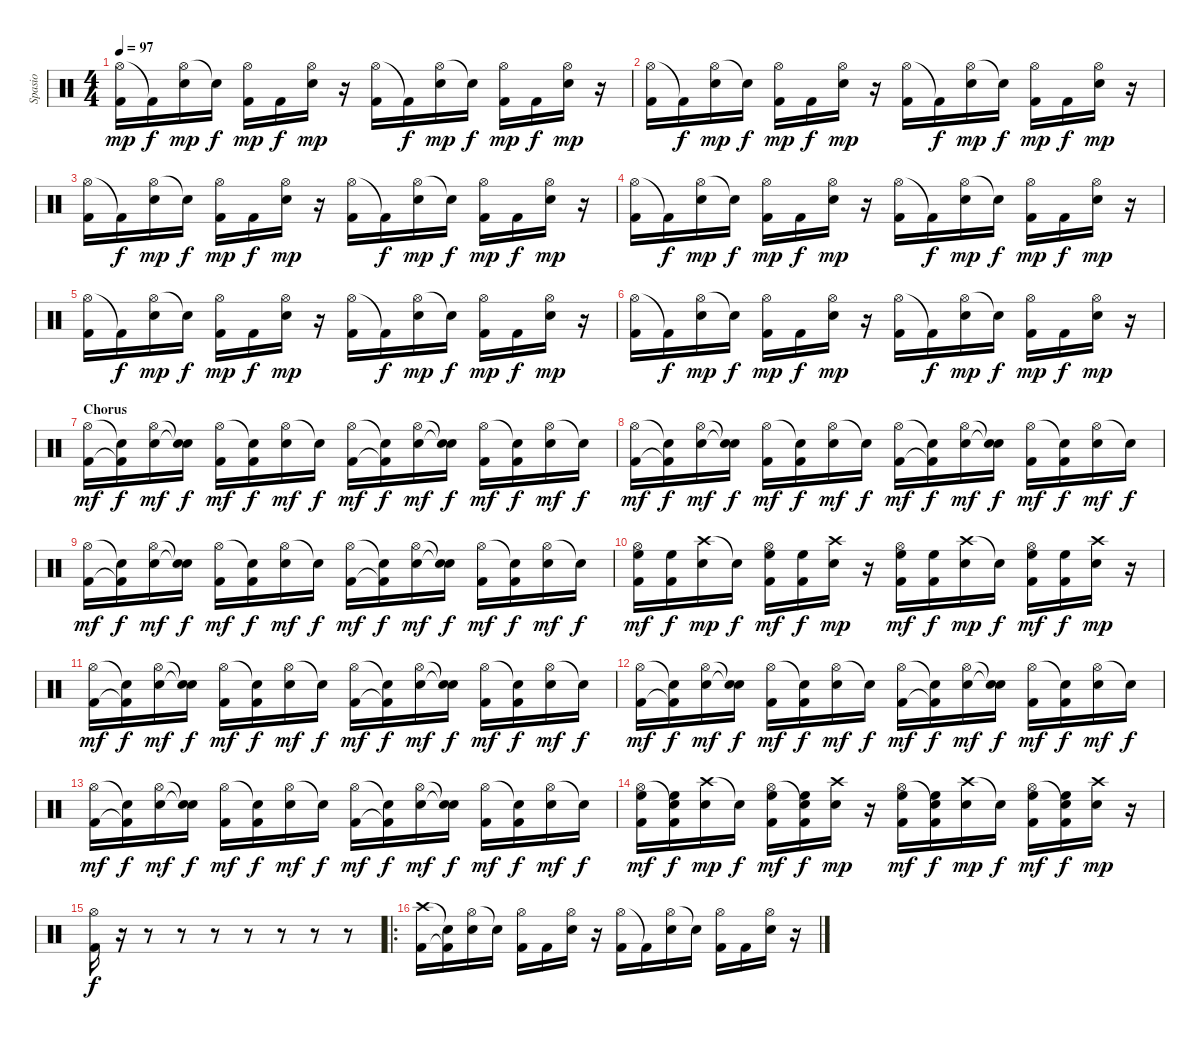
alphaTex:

\track ("Spasio" "Spasio") {instrument percussion}
\staff {score}
\articulation defaults
\ts (4 4)
\tempo 97
\clef neutral
\ks c
("Hi-Hat (open)" "Kick (hit) 2").16{dy mp} "Kick (hit) 2"{t}.16{dy f} ("Hi-Hat (open)" "Electric Snare (hit)").16{dy mp} "Snare (hit)"{t}.16{dy f} ("Hi-Hat (open)" "Kick (hit) 2").16{dy mp} "Kick (hit) 2".16{dy f} ("Hi-Hat (open)" "Electric Snare (hit)").16{dy mp} r.16 ("Hi-Hat (open)" "Kick (hit) 2").16 "Kick (hit) 2"{t}.16{dy f} ("Hi-Hat (open)" "Electric Snare (hit)").16{dy mp} "Electric Snare (hit)"{t}.16{dy f} ("Hi-Hat (open)" "Kick (hit) 2").16{dy mp} "Kick (hit) 2".16{dy f} ("Hi-Hat (open)" "Electric Snare (hit)").16{dy mp} r.16 |
("Hi-Hat (open)" "Kick (hit) 2").16 "Kick (hit) 2"{t}.16{dy f} ("Hi-Hat (open)" "Electric Snare (hit)").16{dy mp} "Snare (hit)"{t}.16{dy f} ("Hi-Hat (open)" "Kick (hit) 2").16{dy mp} "Kick (hit) 2".16{dy f} ("Hi-Hat (open)" "Electric Snare (hit)").16{dy mp} r.16 ("Hi-Hat (open)" "Kick (hit) 2").16 "Kick (hit) 2"{t}.16{dy f} ("Hi-Hat (open)" "Electric Snare (hit)").16{dy mp} "Electric Snare (hit)"{t}.16{dy f} ("Hi-Hat (open)" "Kick (hit) 2").16{dy mp} "Kick (hit) 2".16{dy f} ("Hi-Hat (open)" "Electric Snare (hit)").16{dy mp} r.16 |
("Hi-Hat (open)" "Kick (hit) 2").16 "Kick (hit) 2"{t}.16{dy f} ("Hi-Hat (open)" "Electric Snare (hit)").16{dy mp} "Snare (hit)"{t}.16{dy f} ("Hi-Hat (open)" "Kick (hit) 2").16{dy mp} "Kick (hit) 2".16{dy f} ("Hi-Hat (open)" "Electric Snare (hit)").16{dy mp} r.16 ("Hi-Hat (open)" "Kick (hit) 2").16 "Kick (hit) 2"{t}.16{dy f} ("Hi-Hat (open)" "Electric Snare (hit)").16{dy mp} "Electric Snare (hit)"{t}.16{dy f} ("Hi-Hat (open)" "Kick (hit) 2").16{dy mp} "Kick (hit) 2".16{dy f} ("Hi-Hat (open)" "Electric Snare (hit)").16{dy mp} r.16 |
("Hi-Hat (open)" "Kick (hit) 2").16 "Kick (hit) 2"{t}.16{dy f} ("Hi-Hat (open)" "Electric Snare (hit)").16{dy mp} "Snare (hit)"{t}.16{dy f} ("Hi-Hat (open)" "Kick (hit) 2").16{dy mp} "Kick (hit) 2".16{dy f} ("Hi-Hat (open)" "Electric Snare (hit)").16{dy mp} r.16 ("Hi-Hat (open)" "Kick (hit) 2").16 "Kick (hit) 2"{t}.16{dy f} ("Hi-Hat (open)" "Electric Snare (hit)").16{dy mp} "Electric Snare (hit)"{t}.16{dy f} ("Hi-Hat (open)" "Kick (hit) 2").16{dy mp} "Kick (hit) 2".16{dy f} ("Hi-Hat (open)" "Electric Snare (hit)").16{dy mp} r.16 |
("Hi-Hat (open)" "Kick (hit) 2").16 "Kick (hit) 2"{t}.16{dy f} ("Hi-Hat (open)" "Electric Snare (hit)").16{dy mp} "Snare (hit)"{t}.16{dy f} ("Hi-Hat (open)" "Kick (hit) 2").16{dy mp} "Kick (hit) 2".16{dy f} ("Hi-Hat (open)" "Electric Snare (hit)").16{dy mp} r.16 ("Hi-Hat (open)" "Kick (hit) 2").16 "Kick (hit) 2"{t}.16{dy f} ("Hi-Hat (open)" "Electric Snare (hit)").16{dy mp} "Electric Snare (hit)"{t}.16{dy f} ("Hi-Hat (open)" "Kick (hit) 2").16{dy mp} "Kick (hit) 2".16{dy f} ("Hi-Hat (open)" "Electric Snare (hit)").16{dy mp} r.16 |
("Hi-Hat (open)" "Kick (hit) 2").16 "Kick (hit) 2"{t}.16{dy f} ("Hi-Hat (open)" "Electric Snare (hit)").16{dy mp} "Snare (hit)"{t}.16{dy f} ("Hi-Hat (open)" "Kick (hit) 2").16{dy mp} "Kick (hit) 2".16{dy f} ("Hi-Hat (open)" "Electric Snare (hit)").16{dy mp} r.16 ("Hi-Hat (open)" "Kick (hit) 2").16 "Kick (hit) 2"{t}.16{dy f} ("Hi-Hat (open)" "Electric Snare (hit)").16{dy mp} "Electric Snare (hit)"{t}.16{dy f} ("Hi-Hat (open)" "Kick (hit) 2").16{dy mp} "Kick (hit) 2".16{dy f} ("Hi-Hat (open)" "Electric Snare (hit)").16{dy mp} r.16 |
\section ("" "Chorus")
("Hi-Hat (open)" "Kick (hit) 2").16{dy mf} ("Snare (hit)"{t} "Kick (hit) 2"{t}).16{dy f} ("Hi-Hat (open)" "Electric Snare (hit)").16{dy mf} ("Snare (hit)"{t} "Snare (hit)"{t}).16{dy f} ("Hi-Hat (open)" "Kick (hit) 2").16{dy mf} ("Snare (hit)"{t} "Kick (hit) 2").16{dy f} ("Hi-Hat (open)" "Electric Snare (hit)").16{dy mf} "Snare (hit)"{t}.16{dy f} ("Hi-Hat (open)" "Kick (hit) 2").16{dy mf} ("Snare (hit)"{t} "Kick (hit) 2"{t}).16{dy f} ("Hi-Hat (open)" "Electric Snare (hit)").16{dy mf} ("Snare (hit)"{t} "Electric Snare (hit)"{t}).16{dy f} ("Hi-Hat (open)" "Kick (hit) 2").16{dy mf} ("Snare (hit)"{t} "Kick (hit) 2").16{dy f} ("Hi-Hat (open)" "Electric Snare (hit)").16{dy mf} "Snare (hit)"{t}.16{dy f} |
("Hi-Hat (open)" "Kick (hit) 2").16{dy mf} ("Snare (hit)"{t} "Kick (hit) 2"{t}).16{dy f} ("Hi-Hat (open)" "Electric Snare (hit)").16{dy mf} ("Snare (hit)"{t} "Snare (hit)"{t}).16{dy f} ("Hi-Hat (open)" "Kick (hit) 2").16{dy mf} ("Snare (hit)"{t} "Kick (hit) 2").16{dy f} ("Hi-Hat (open)" "Electric Snare (hit)").16{dy mf} "Snare (hit)"{t}.16{dy f} ("Hi-Hat (open)" "Kick (hit) 2").16{dy mf} ("Snare (hit)"{t} "Kick (hit) 2"{t}).16{dy f} ("Hi-Hat (open)" "Electric Snare (hit)").16{dy mf} ("Snare (hit)"{t} "Electric Snare (hit)"{t}).16{dy f} ("Hi-Hat (open)" "Kick (hit) 2").16{dy mf} ("Snare (hit)"{t} "Kick (hit) 2").16{dy f} ("Hi-Hat (open)" "Electric Snare (hit)").16{dy mf} "Snare (hit)"{t}.16{dy f} |
("Hi-Hat (open)" "Kick (hit) 2").16{dy mf} ("Snare (hit)"{t} "Kick (hit) 2"{t}).16{dy f} ("Hi-Hat (open)" "Electric Snare (hit)").16{dy mf} ("Snare (hit)"{t} "Snare (hit)"{t}).16{dy f} ("Hi-Hat (open)" "Kick (hit) 2").16{dy mf} ("Snare (hit)"{t} "Kick (hit) 2").16{dy f} ("Hi-Hat (open)" "Electric Snare (hit)").16{dy mf} "Snare (hit)"{t}.16{dy f} ("Hi-Hat (open)" "Kick (hit) 2").16{dy mf} ("Snare (hit)"{t} "Kick (hit) 2"{t}).16{dy f} ("Hi-Hat (open)" "Electric Snare (hit)").16{dy mf} ("Snare (hit)"{t} "Electric Snare (hit)"{t}).16{dy f} ("Hi-Hat (open)" "Kick (hit) 2").16{dy mf} ("Snare (hit)"{t} "Kick (hit) 2").16{dy f} ("Hi-Hat (open)" "Electric Snare (hit)").16{dy mf} "Snare (hit)"{t}.16{dy f} |
("Hi-Hat (open)" "High Floor Tom (hit)" "Kick (hit) 2").16{dy mf} ("High Floor Tom (hit)" "Kick (hit) 2").16{dy f} ("Crash high (hit)" "Electric Snare (hit)").16{dy mp} "Snare (hit)"{t}.16{dy f} ("Hi-Hat (open)" "High Floor Tom (hit)" "Kick (hit) 2").16{dy mf} ("High Floor Tom (hit)" "Kick (hit) 2").16{dy f} ("Crash high (hit)" "Electric Snare (hit)").16{dy mp} r.16 ("Hi-Hat (open)" "High Floor Tom (hit)" "Kick (hit) 2").16{dy mf} ("High Floor Tom (hit)" "Kick (hit) 2").16{dy f} ("Crash high (hit)" "Electric Snare (hit)").16{dy mp} "Electric Snare (hit)"{t}.16{dy f} ("Hi-Hat (open)" "High Floor Tom (hit)" "Kick (hit) 2").16{dy mf} ("High Floor Tom (hit)" "Kick (hit) 2").16{dy f} ("Crash high (hit)" "Electric Snare (hit)").16{dy mp} r.16 |
("Hi-Hat (open)" "Kick (hit) 2").16{dy mf} ("Snare (hit)"{t} "Kick (hit) 2"{t}).16{dy f} ("Hi-Hat (open)" "Electric Snare (hit)").16{dy mf} ("Snare (hit)"{t} "Snare (hit)"{t}).16{dy f} ("Hi-Hat (open)" "Kick (hit) 2").16{dy mf} ("Snare (hit)"{t} "Kick (hit) 2").16{dy f} ("Hi-Hat (open)" "Electric Snare (hit)").16{dy mf} "Snare (hit)"{t}.16{dy f} ("Hi-Hat (open)" "Kick (hit) 2").16{dy mf} ("Snare (hit)"{t} "Kick (hit) 2"{t}).16{dy f} ("Hi-Hat (open)" "Electric Snare (hit)").16{dy mf} ("Snare (hit)"{t} "Electric Snare (hit)"{t}).16{dy f} ("Hi-Hat (open)" "Kick (hit) 2").16{dy mf} ("Snare (hit)"{t} "Kick (hit) 2").16{dy f} ("Hi-Hat (open)" "Electric Snare (hit)").16{dy mf} "Snare (hit)"{t}.16{dy f} |
("Hi-Hat (open)" "Kick (hit) 2").16{dy mf} ("Snare (hit)"{t} "Kick (hit) 2"{t}).16{dy f} ("Hi-Hat (open)" "Electric Snare (hit)").16{dy mf} ("Snare (hit)"{t} "Snare (hit)"{t}).16{dy f} ("Hi-Hat (open)" "Kick (hit) 2").16{dy mf} ("Snare (hit)"{t} "Kick (hit) 2").16{dy f} ("Hi-Hat (open)" "Electric Snare (hit)").16{dy mf} "Snare (hit)"{t}.16{dy f} ("Hi-Hat (open)" "Kick (hit) 2").16{dy mf} ("Snare (hit)"{t} "Kick (hit) 2"{t}).16{dy f} ("Hi-Hat (open)" "Electric Snare (hit)").16{dy mf} ("Snare (hit)"{t} "Electric Snare (hit)"{t}).16{dy f} ("Hi-Hat (open)" "Kick (hit) 2").16{dy mf} ("Snare (hit)"{t} "Kick (hit) 2").16{dy f} ("Hi-Hat (open)" "Electric Snare (hit)").16{dy mf} "Snare (hit)"{t}.16{dy f} |
("Hi-Hat (open)" "Kick (hit) 2").16{dy mf} ("Snare (hit)"{t} "Kick (hit) 2"{t}).16{dy f} ("Hi-Hat (open)" "Electric Snare (hit)").16{dy mf} ("Snare (hit)"{t} "Snare (hit)"{t}).16{dy f} ("Hi-Hat (open)" "Kick (hit) 2").16{dy mf} ("Snare (hit)"{t} "Kick (hit) 2").16{dy f} ("Hi-Hat (open)" "Electric Snare (hit)").16{dy mf} "Snare (hit)"{t}.16{dy f} ("Hi-Hat (open)" "Kick (hit) 2").16{dy mf} ("Snare (hit)"{t} "Kick (hit) 2"{t}).16{dy f} ("Hi-Hat (open)" "Electric Snare (hit)").16{dy mf} ("Snare (hit)"{t} "Electric Snare (hit)"{t}).16{dy f} ("Hi-Hat (open)" "Kick (hit) 2").16{dy mf} ("Snare (hit)"{t} "Kick (hit) 2").16{dy f} ("Hi-Hat (open)" "Electric Snare (hit)").16{dy mf} "Snare (hit)"{t}.16{dy f} |
("Hi-Hat (open)" "High Floor Tom (hit)" "Kick (hit) 2").16{dy mf} ("Snare (hit)"{t} "High Floor Tom (hit)" "Kick (hit) 2").16{dy f} ("Crash high (hit)" "Electric Snare (hit)").16{dy mp} "Snare (hit)"{t}.16{dy f} ("Hi-Hat (open)" "High Floor Tom (hit)" "Kick (hit) 2").16{dy mf} ("Snare (hit)"{t} "High Floor Tom (hit)" "Kick (hit) 2").16{dy f} ("Crash high (hit)" "Electric Snare (hit)").16{dy mp} r.16 ("Hi-Hat (open)" "High Floor Tom (hit)" "Kick (hit) 2").16{dy mf} ("Snare (hit)"{t} "High Floor Tom (hit)" "Kick (hit) 2").16{dy f} ("Crash high (hit)" "Electric Snare (hit)").16{dy mp} "Electric Snare (hit)"{t}.16{dy f} ("Hi-Hat (open)" "High Floor Tom (hit)" "Kick (hit) 2").16{dy mf} ("Snare (hit)"{t} "High Floor Tom (hit)" "Kick (hit) 2").16{dy f} ("Crash high (hit)" "Electric Snare (hit)").16{dy mp} r.16 |
("Hi-Hat (open)" "Kick (hit) 2").16{dy f} r.16 r.8 r.8 r.8 r.8 r.8 r.8 r.8 |
\ro
("Crash high (hit)" "Kick (hit) 2").16 ("Snare (hit)"{t} "Kick (hit) 2"{t}).16 ("Hi-Hat (open)" "Electric Snare (hit)").16 "Snare (hit)"{t}.16 ("Hi-Hat (open)" "Kick (hit) 2").16 "Kick (hit) 2".16 ("Hi-Hat (open)" "Electric Snare (hit)").16 r.16 ("Hi-Hat (open)" "Kick (hit) 2").16 "Kick (hit) 2"{t}.16 ("Hi-Hat (open)" "Electric Snare (hit)").16 "Electric Snare (hit)"{t}.16 ("Hi-Hat (open)" "Kick (hit) 2").16 "Kick (hit) 2".16 ("Hi-Hat (open)" "Electric Snare (hit)").16 r.16
